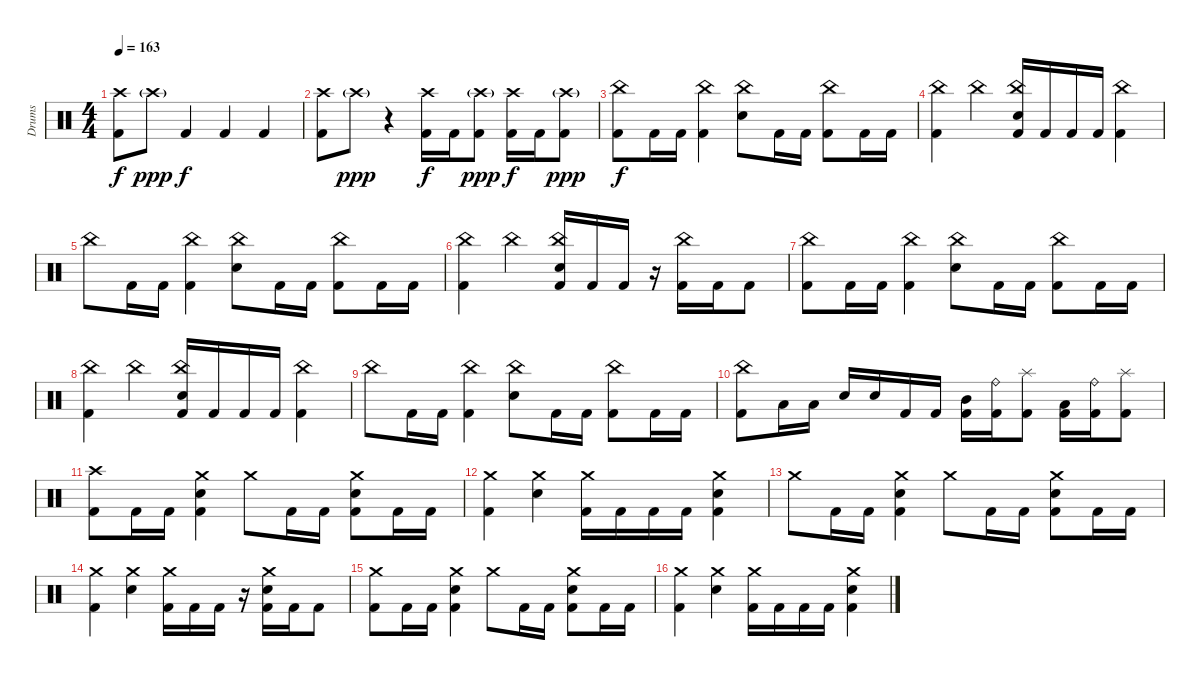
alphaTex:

\track ("Drums" "Drums") {instrument percussion}
\staff {score}
\articulation defaults
\ts (4 4)
\tempo 163
\clef neutral
\ks c
("Crash high (hit)" "Kick (hit) 2").8{dy f} "Crash high (hit)"{g}.8{dy ppp} "Kick (hit) 2".4{dy f} "Kick (hit) 2".4 "Kick (hit) 2".4 |
("Crash high (hit)" "Kick (hit) 2").8 "Crash high (hit)"{g}.8{dy ppp} r.4 ("Crash high (hit)" "Kick (hit) 2").16{dy f} "Kick (hit) 2".16 ("Crash high (hit)"{g} "Kick (hit) 2").8{dy ppp} ("Crash high (hit)" "Kick (hit) 2").16{dy f} "Kick (hit) 2".16 ("Crash high (hit)"{g} "Kick (hit) 2").8{dy ppp} |
("China (hit)" "Kick (hit) 2").8{dy f} "Kick (hit) 2".16 "Kick (hit) 2".16 ("China (hit)" "Kick (hit) 2").4 ("China (hit)" "Electric Snare (hit)").8 "Kick (hit) 2".16 "Kick (hit) 2".16 ("China (hit)" "Kick (hit) 2").8 "Kick (hit) 2".16 "Kick (hit) 2".16 |
("China (hit)" "Kick (hit) 2").4 "China (hit)".4 ("China (hit)" "Kick (hit) 2" "Electric Snare (hit)").16 "Kick (hit) 2".16 "Kick (hit) 2".16 "Kick (hit) 2".16 ("China (hit)" "Kick (hit) 2").4 |
"China (hit)".8 "Kick (hit) 2".16 "Kick (hit) 2".16 ("China (hit)" "Kick (hit) 2").4 ("China (hit)" "Electric Snare (hit)").8 "Kick (hit) 2".16 "Kick (hit) 2".16 ("China (hit)" "Kick (hit) 2").8 "Kick (hit) 2".16 "Kick (hit) 2".16 |
("China (hit)" "Kick (hit) 2").4 "China (hit)".4 ("China (hit)" "Kick (hit) 2" "Electric Snare (hit)").16 "Kick (hit) 2".16 "Kick (hit) 2".16 r.16 ("China (hit)" "Kick (hit) 2").16 "Kick (hit) 2".16 "Kick (hit) 2".8 |
("China (hit)" "Kick (hit) 2").8 "Kick (hit) 2".16 "Kick (hit) 2".16 ("China (hit)" "Kick (hit) 2").4 ("China (hit)" "Electric Snare (hit)").8 "Kick (hit) 2".16 "Kick (hit) 2".16 ("China (hit)" "Kick (hit) 2").8 "Kick (hit) 2".16 "Kick (hit) 2".16 |
("China (hit)" "Kick (hit) 2").4 "China (hit)".4 ("China (hit)" "Kick (hit) 2" "Electric Snare (hit)").16 "Kick (hit) 2".16 "Kick (hit) 2".16 "Kick (hit) 2".16 ("China (hit)" "Kick (hit) 2").4 |
"China (hit)".8 "Kick (hit) 2".16 "Kick (hit) 2".16 ("China (hit)" "Kick (hit) 2").4 ("China (hit)" "Electric Snare (hit)").8 "Kick (hit) 2".16 "Kick (hit) 2".16 ("China (hit)" "Kick (hit) 2").8 "Kick (hit) 2".16 "Kick (hit) 2".16 |
("China (hit)" "Kick (hit) 2").8 "Low Tom (hit)".16 "Low Tom (hit)".16 "Electric Snare (hit)".16 "Electric Snare (hit)".16 "Kick (hit) 2".16 "Kick (hit) 2".16 ("Mid Tom (hit)" "Kick (hit) 2").16 ("Ride (bell)" "Kick (hit) 2").16 ("Splash (hit)" "Kick (hit) 2").8 ("Low Tom (hit)" "Kick (hit) 2").16 ("Ride (bell)" "Kick (hit) 2").16 ("Splash (hit)" "Kick (hit) 2").8 |
("Crash high (hit)" "Kick (hit) 2").8 "Kick (hit) 2".16 "Kick (hit) 2".16 ("Crash medium (hit)" "Kick (hit) 2" "Electric Snare (hit)").4 "Crash medium (hit)".8 "Kick (hit) 2".16 "Kick (hit) 2".16 ("Crash medium (hit)" "Kick (hit) 2" "Electric Snare (hit)").8 "Kick (hit) 2".16 "Kick (hit) 2".16 |
("Crash medium (hit)" "Kick (hit) 2").4 ("Crash medium (hit)" "Electric Snare (hit)").4 ("Crash medium (hit)" "Kick (hit) 2").16 "Kick (hit) 2".16 "Kick (hit) 2".16 "Kick (hit) 2".16 ("Crash medium (hit)" "Kick (hit) 2" "Electric Snare (hit)").4 |
"Crash medium (hit)".8 "Kick (hit) 2".16 "Kick (hit) 2".16 ("Crash medium (hit)" "Kick (hit) 2" "Electric Snare (hit)").4 "Crash medium (hit)".8 "Kick (hit) 2".16 "Kick (hit) 2".16 ("Crash medium (hit)" "Kick (hit) 2" "Electric Snare (hit)").8 "Kick (hit) 2".16 "Kick (hit) 2".16 |
("Crash medium (hit)" "Kick (hit) 2").4 ("Crash medium (hit)" "Electric Snare (hit)").4 ("Crash medium (hit)" "Kick (hit) 2").16 "Kick (hit) 2".16 "Kick (hit) 2".16 r.16 ("Crash medium (hit)" "Kick (hit) 2" "Electric Snare (hit)").16 "Kick (hit) 2".16 "Kick (hit) 2".8 |
("Crash medium (hit)" "Kick (hit) 2").8 "Kick (hit) 2".16 "Kick (hit) 2".16 ("Crash medium (hit)" "Kick (hit) 2" "Electric Snare (hit)").4 "Crash medium (hit)".8 "Kick (hit) 2".16 "Kick (hit) 2".16 ("Crash medium (hit)" "Kick (hit) 2" "Electric Snare (hit)").8 "Kick (hit) 2".16 "Kick (hit) 2".16 |
("Crash medium (hit)" "Kick (hit) 2").4 ("Crash medium (hit)" "Electric Snare (hit)").4 ("Crash medium (hit)" "Kick (hit) 2").16 "Kick (hit) 2".16 "Kick (hit) 2".16 "Kick (hit) 2".16 ("Crash medium (hit)" "Kick (hit) 2" "Electric Snare (hit)").4
